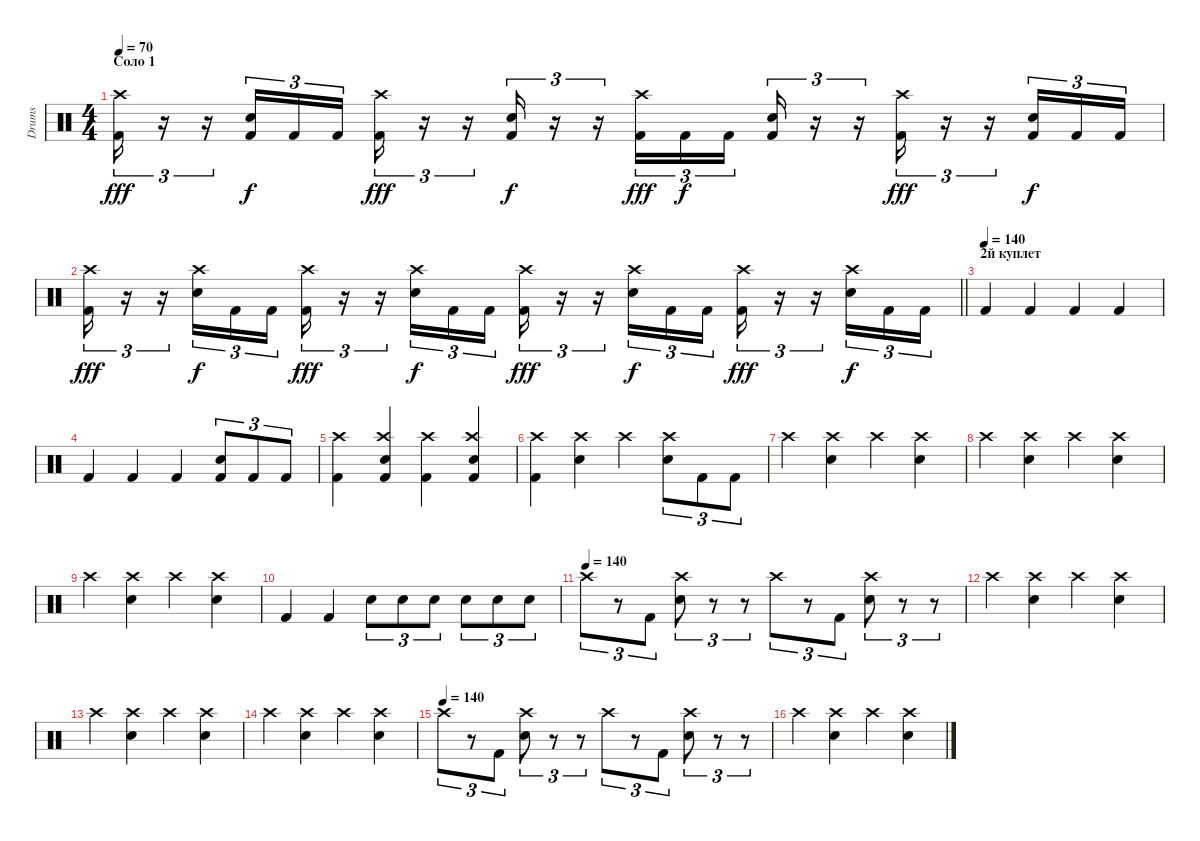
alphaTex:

\track ("Drums" "Drums") {instrument percussion}
\staff {score}
\articulation defaults
\ts (4 4)
\section ("" "Соло 1")
\tempo 70
\clef neutral
\ks c
("Kick (hit) 2" "Crash high (hit)").16{tu (3 2) dy fff} r.16{tu (3 2)} r.16{tu (3 2)} ("Kick (hit) 2" "Electric Snare (hit)").16{tu (3 2) dy f} "Kick (hit) 2".16{tu (3 2)} "Kick (hit) 2".16{tu (3 2)} ("Kick (hit) 2" "Crash high (hit)").16{tu (3 2) dy fff} r.16{tu (3 2)} r.16{tu (3 2)} ("Kick (hit) 2" "Electric Snare (hit)").16{tu (3 2) dy f} r.16{tu (3 2)} r.16{tu (3 2)} ("Kick (hit) 2" "Crash high (hit)").16{tu (3 2) dy fff} "Kick (hit) 2".16{tu (3 2) dy f} "Kick (hit) 2".16{tu (3 2) beam splitsecondary} ("Kick (hit) 2" "Electric Snare (hit)").16{tu (3 2)} r.16{tu (3 2)} r.16{tu (3 2)} ("Kick (hit) 2" "Crash high (hit)").16{tu (3 2) dy fff} r.16{tu (3 2)} r.16{tu (3 2)} ("Kick (hit) 2" "Electric Snare (hit)").16{tu (3 2) dy f} "Kick (hit) 2".16{tu (3 2)} "Kick (hit) 2".16{tu (3 2)} |
\barLineRight lightlight
("Kick (hit) 2" "Crash high (hit)").16{tu (3 2) dy fff} r.16{tu (3 2)} r.16{tu (3 2)} ("Electric Snare (hit)" "Crash high (hit)").16{tu (3 2) dy f} "Kick (hit) 2".16{tu (3 2)} "Kick (hit) 2".16{tu (3 2)} ("Kick (hit) 2" "Crash high (hit)").16{tu (3 2) dy fff} r.16{tu (3 2)} r.16{tu (3 2)} ("Electric Snare (hit)" "Crash high (hit)").16{tu (3 2) dy f} "Kick (hit) 2".16{tu (3 2)} "Kick (hit) 2".16{tu (3 2)} ("Kick (hit) 2" "Crash high (hit)").16{tu (3 2) dy fff} r.16{tu (3 2)} r.16{tu (3 2)} ("Electric Snare (hit)" "Crash high (hit)").16{tu (3 2) dy f} "Kick (hit) 2".16{tu (3 2)} "Kick (hit) 2".16{tu (3 2)} ("Kick (hit) 2" "Crash high (hit)").16{tu (3 2) dy fff} r.16{tu (3 2)} r.16{tu (3 2)} ("Electric Snare (hit)" "Crash high (hit)").16{tu (3 2) dy f} "Kick (hit) 2".16{tu (3 2)} "Kick (hit) 2".16{tu (3 2)} |
\section ("" "2й куплет")
\tempo (140)
"Kick (hit) 2".4 "Kick (hit) 2".4 "Kick (hit) 2".4 "Kick (hit) 2".4 |
"Kick (hit) 2".4 "Kick (hit) 2".4 "Kick (hit) 2".4 ("Electric Snare (hit)" "Kick (hit) 2").8{tu (3 2)} "Kick (hit) 2".8{tu (3 2)} "Kick (hit) 2".8{tu (3 2)} |
("Crash high (hit)" "Kick (hit) 2").4 ("Electric Snare (hit)" "Crash high (hit)" "Kick (hit) 2").4 ("Crash high (hit)" "Kick (hit) 2").4 ("Electric Snare (hit)" "Crash high (hit)" "Kick (hit) 2").4 |
("Crash high (hit)" "Kick (hit) 2").4 ("Crash high (hit)" "Electric Snare (hit)").4 "Crash high (hit)".4 ("Crash high (hit)" "Electric Snare (hit)").8{tu (3 2)} "Kick (hit) 2".8{tu (3 2)} "Kick (hit) 2".8{tu (3 2)} |
"Crash high (hit)".4 ("Crash high (hit)" "Electric Snare (hit)").4 "Crash high (hit)".4 ("Crash high (hit)" "Electric Snare (hit)").4 |
"Crash high (hit)".4 ("Electric Snare (hit)" "Crash high (hit)").4 "Crash high (hit)".4 ("Electric Snare (hit)" "Crash high (hit)").4 |
"Crash high (hit)".4 ("Electric Snare (hit)" "Crash high (hit)").4 "Crash high (hit)".4 ("Electric Snare (hit)" "Crash high (hit)").4 |
"Kick (hit) 2".4 "Kick (hit) 2".4 "Electric Snare (hit)".8{tu (3 2)} "Electric Snare (hit)".8{tu (3 2)} "Electric Snare (hit)".8{tu (3 2)} "Electric Snare (hit)".8{tu (3 2)} "Electric Snare (hit)".8{tu (3 2)} "Electric Snare (hit)".8{tu (3 2)} |
\tempo (140)
"Crash high (hit)".8{tu (3 2)} r.8{tu (3 2)} "Kick (hit) 2".8{tu (3 2)} ("Crash high (hit)" "Electric Snare (hit)").8{tu (3 2)} r.8{tu (3 2)} r.8{tu (3 2)} "Crash high (hit)".8{tu (3 2)} r.8{tu (3 2)} "Kick (hit) 2".8{tu (3 2)} ("Crash high (hit)" "Electric Snare (hit)").8{tu (3 2)} r.8{tu (3 2)} r.8{tu (3 2)} |
"Crash high (hit)".4 ("Electric Snare (hit)" "Crash high (hit)").4 "Crash high (hit)".4 ("Electric Snare (hit)" "Crash high (hit)").4 |
"Crash high (hit)".4 ("Electric Snare (hit)" "Crash high (hit)").4 "Crash high (hit)".4 ("Electric Snare (hit)" "Crash high (hit)").4 |
"Crash high (hit)".4 ("Electric Snare (hit)" "Crash high (hit)").4 "Crash high (hit)".4 ("Electric Snare (hit)" "Crash high (hit)").4 |
\tempo (140)
"Crash high (hit)".8{tu (3 2)} r.8{tu (3 2)} "Kick (hit) 2".8{tu (3 2)} ("Crash high (hit)" "Electric Snare (hit)").8{tu (3 2)} r.8{tu (3 2)} r.8{tu (3 2)} "Crash high (hit)".8{tu (3 2)} r.8{tu (3 2)} "Kick (hit) 2".8{tu (3 2)} ("Crash high (hit)" "Electric Snare (hit)").8{tu (3 2)} r.8{tu (3 2)} r.8{tu (3 2)} |
"Crash high (hit)".4 ("Electric Snare (hit)" "Crash high (hit)").4 "Crash high (hit)".4 ("Electric Snare (hit)" "Crash high (hit)").4
